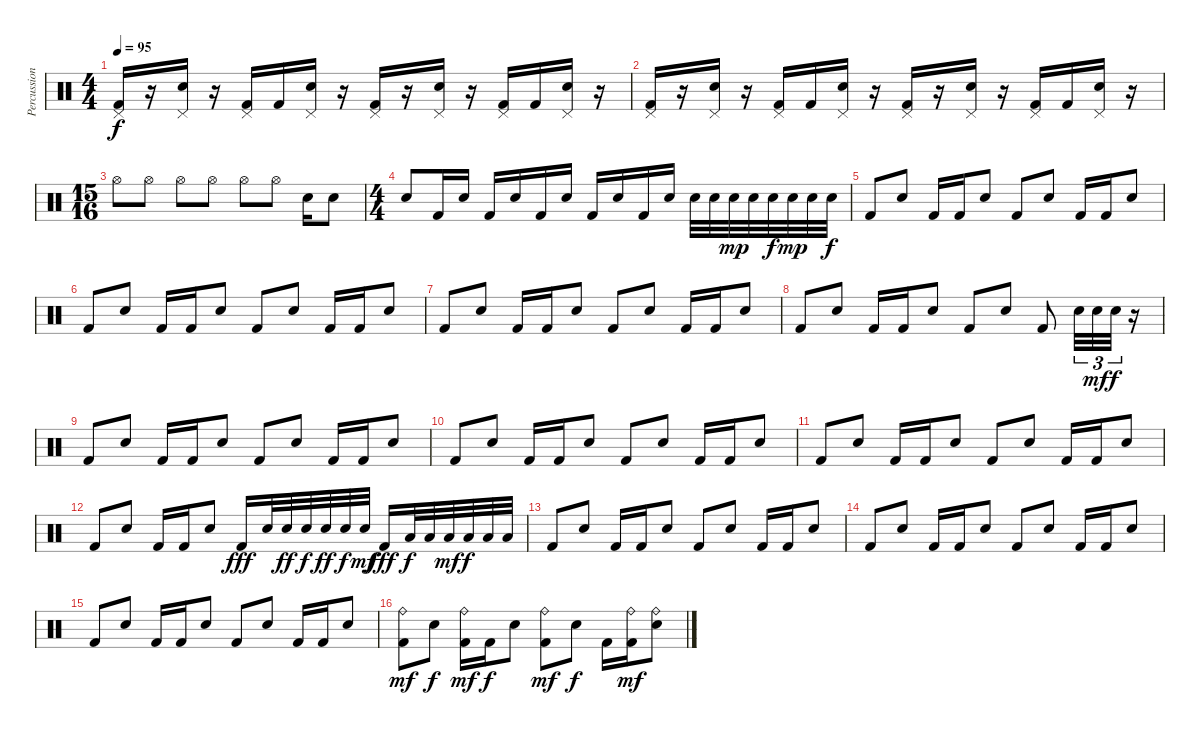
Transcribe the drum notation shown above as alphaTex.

\track ("Percussion" "Percussion") {instrument percussion}
\staff {score}
\articulation defaults
\ts (4 4)
\tempo 95
\clef neutral
\ks c
("Pedal Hi-Hat (hit)" "Kick (hit) 2").16{dy f} r.16 ("Pedal Hi-Hat (hit)" "Electric Snare (hit)").16 r.16 ("Pedal Hi-Hat (hit)" "Kick (hit) 2").16 "Kick (hit) 2".16 ("Pedal Hi-Hat (hit)" "Electric Snare (hit)").16 r.16 ("Pedal Hi-Hat (hit)" "Kick (hit) 2").16 r.16 ("Pedal Hi-Hat (hit)" "Electric Snare (hit)").16 r.16 ("Pedal Hi-Hat (hit)" "Kick (hit) 2").16 "Kick (hit) 2".16 ("Pedal Hi-Hat (hit)" "Electric Snare (hit)").16 r.16 |
("Pedal Hi-Hat (hit)" "Kick (hit) 2").16 r.16 ("Pedal Hi-Hat (hit)" "Electric Snare (hit)").16 r.16 ("Pedal Hi-Hat (hit)" "Kick (hit) 2").16 "Kick (hit) 2".16 ("Pedal Hi-Hat (hit)" "Electric Snare (hit)").16 r.16 ("Pedal Hi-Hat (hit)" "Kick (hit) 2").16 r.16 ("Pedal Hi-Hat (hit)" "Electric Snare (hit)").16 r.16 ("Pedal Hi-Hat (hit)" "Kick (hit) 2").16 "Kick (hit) 2".16 ("Pedal Hi-Hat (hit)" "Electric Snare (hit)").16 r.16 |
\ts (15 16)
"Hi-Hat (open)".8 "Hi-Hat (open)".8 "Hi-Hat (open)".8 "Hi-Hat (open)".8 "Hi-Hat (open)".8 "Hi-Hat (open)".8 "Electric Snare (hit)".16 "Electric Snare (hit)".8 |
\ts (4 4)
"Electric Snare (hit)".8 "Kick (hit) 2".16 "Electric Snare (hit)".16 "Kick (hit) 2".16 "Electric Snare (hit)".16 "Kick (hit) 2".16 "Electric Snare (hit)".16 "Kick (hit) 2".16 "Electric Snare (hit)".16 "Kick (hit) 2".16 "Electric Snare (hit)".16 "Electric Snare (hit)".32 "Electric Snare (hit)".32 "Electric Snare (hit)".32{dy mp} "Electric Snare (hit)".32 "Electric Snare (hit)".32{dy f} "Electric Snare (hit)".32{dy mp} "Electric Snare (hit)".32 "Electric Snare (hit)".32{dy f} |
"Kick (hit) 2".8 "Electric Snare (hit)".8 "Kick (hit) 2".16 "Kick (hit) 2".16 "Electric Snare (hit)".8 "Kick (hit) 2".8 "Electric Snare (hit)".8 "Kick (hit) 2".16 "Kick (hit) 2".16 "Electric Snare (hit)".8 |
"Kick (hit) 2".8 "Electric Snare (hit)".8 "Kick (hit) 2".16 "Kick (hit) 2".16 "Electric Snare (hit)".8 "Kick (hit) 2".8 "Electric Snare (hit)".8 "Kick (hit) 2".16 "Kick (hit) 2".16 "Electric Snare (hit)".8 |
"Kick (hit) 2".8 "Electric Snare (hit)".8 "Kick (hit) 2".16 "Kick (hit) 2".16 "Electric Snare (hit)".8 "Kick (hit) 2".8 "Electric Snare (hit)".8 "Kick (hit) 2".16 "Kick (hit) 2".16 "Electric Snare (hit)".8 |
"Kick (hit) 2".8 "Electric Snare (hit)".8 "Kick (hit) 2".16 "Kick (hit) 2".16 "Electric Snare (hit)".8 "Kick (hit) 2".8 "Electric Snare (hit)".8 "Kick (hit) 2".8 "Electric Snare (hit)".32{tu (3 2)} "Electric Snare (hit)".32{tu (3 2) dy mf} "Electric Snare (hit)".32{tu (3 2) dy f} r.16 |
"Kick (hit) 2".8 "Electric Snare (hit)".8 "Kick (hit) 2".16 "Kick (hit) 2".16 "Electric Snare (hit)".8 "Kick (hit) 2".8 "Electric Snare (hit)".8 "Kick (hit) 2".16 "Kick (hit) 2".16 "Electric Snare (hit)".8 |
"Kick (hit) 2".8 "Electric Snare (hit)".8 "Kick (hit) 2".16 "Kick (hit) 2".16 "Electric Snare (hit)".8 "Kick (hit) 2".8 "Electric Snare (hit)".8 "Kick (hit) 2".16 "Kick (hit) 2".16 "Electric Snare (hit)".8 |
"Kick (hit) 2".8 "Electric Snare (hit)".8 "Kick (hit) 2".16 "Kick (hit) 2".16 "Electric Snare (hit)".8 "Kick (hit) 2".8 "Electric Snare (hit)".8 "Kick (hit) 2".16 "Kick (hit) 2".16 "Electric Snare (hit)".8 |
"Kick (hit) 2".8 "Electric Snare (hit)".8 "Kick (hit) 2".16 "Kick (hit) 2".16 "Electric Snare (hit)".8 "Kick (hit) 2".16{dy fff} "Electric Snare (hit)".32 "Electric Snare (hit)".32{dy ff} "Electric Snare (hit)".32{dy f} "Electric Snare (hit)".32{dy ff} "Electric Snare (hit)".32{dy f} "Electric Snare (hit)".32{dy mf} "Kick (hit) 2".16{dy fff} "Low Tom (hit)".32{dy f} "Low Tom (hit)".32 "Low Tom (hit)".32{dy mf} "Low Floor Tom (hit)".32{dy f} "Low Floor Tom (hit)".32 "Low Floor Tom (hit)".32 |
"Kick (hit) 2".8 "Electric Snare (hit)".8 "Kick (hit) 2".16 "Kick (hit) 2".16 "Electric Snare (hit)".8 "Kick (hit) 2".8 "Electric Snare (hit)".8 "Kick (hit) 2".16 "Kick (hit) 2".16 "Electric Snare (hit)".8 |
"Kick (hit) 2".8 "Electric Snare (hit)".8 "Kick (hit) 2".16 "Kick (hit) 2".16 "Electric Snare (hit)".8 "Kick (hit) 2".8 "Electric Snare (hit)".8 "Kick (hit) 2".16 "Kick (hit) 2".16 "Electric Snare (hit)".8 |
"Kick (hit) 2".8 "Electric Snare (hit)".8 "Kick (hit) 2".16 "Kick (hit) 2".16 "Electric Snare (hit)".8 "Kick (hit) 2".8 "Electric Snare (hit)".8 "Kick (hit) 2".16 "Kick (hit) 2".16 "Electric Snare (hit)".8 |
("Ride (bell)" "Kick (hit) 2").8{dy mf} "Electric Snare (hit)".8{dy f} ("Ride (bell)" "Kick (hit) 2").16{dy mf} "Kick (hit) 2".16{dy f} "Electric Snare (hit)".8 ("Ride (bell)" "Kick (hit) 2").8{dy mf} "Electric Snare (hit)".8{dy f} "Kick (hit) 2".16 ("Ride (bell)" "Kick (hit) 2").16{dy mf} ("Ride (bell)" "Electric Snare (hit)").8
